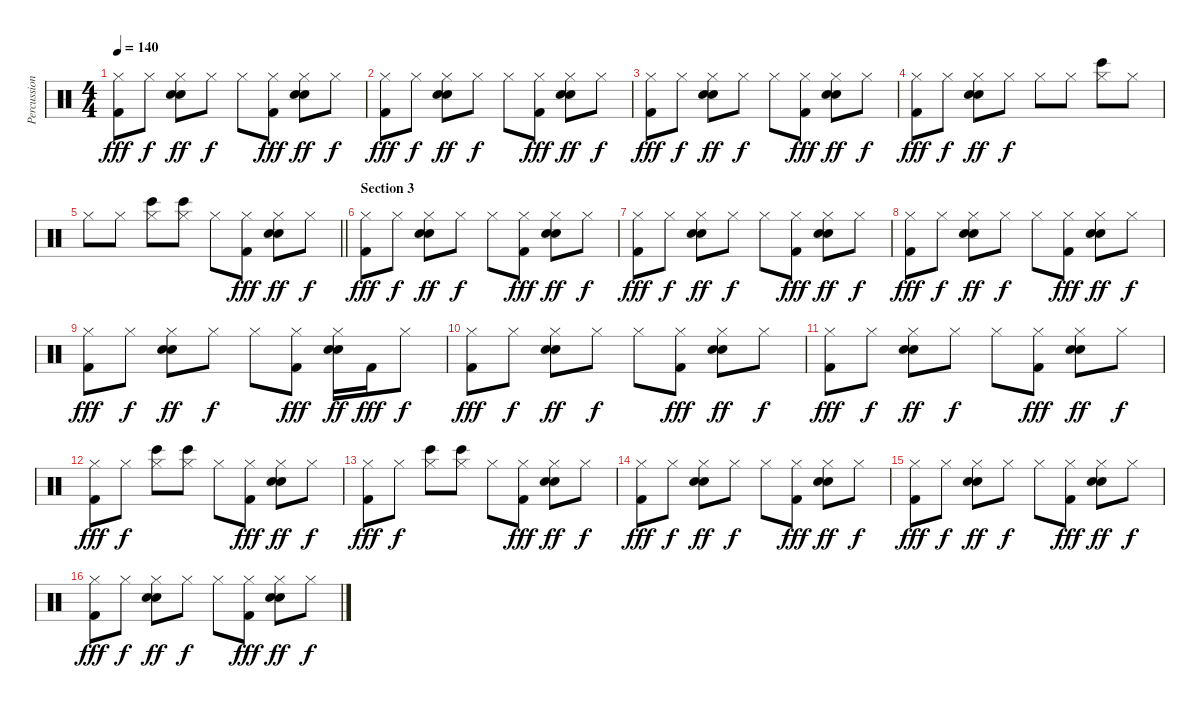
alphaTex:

\track ("Percussion" "Percussion") {instrument percussion}
\staff {score}
\articulation defaults
\ts (4 4)
\tempo 140
\clef neutral
\ks c
("Hi-Hat (closed)" "Kick (hit) 2").8{dy fff} "Hi-Hat (closed)".8{dy f} ("Hi-Hat (closed)" "Electric Snare (hit)" "Snare (hit) 2").8{dy ff} "Hi-Hat (closed)".8{dy f} "Hi-Hat (closed)".8 ("Hi-Hat (closed)" "Kick (hit) 2").8{dy fff} ("Hi-Hat (closed)" "Electric Snare (hit)" "Snare (hit) 2").8{dy ff} "Hi-Hat (closed)".8{dy f} |
("Hi-Hat (closed)" "Kick (hit) 2").8{dy fff} "Hi-Hat (closed)".8{dy f} ("Hi-Hat (closed)" "Electric Snare (hit)" "Snare (hit) 2").8{dy ff} "Hi-Hat (closed)".8{dy f} "Hi-Hat (closed)".8 ("Hi-Hat (closed)" "Kick (hit) 2").8{dy fff} ("Hi-Hat (closed)" "Electric Snare (hit)" "Snare (hit) 2").8{dy ff} "Hi-Hat (closed)".8{dy f} |
("Hi-Hat (closed)" "Kick (hit) 2").8{dy fff} "Hi-Hat (closed)".8{dy f} ("Hi-Hat (closed)" "Electric Snare (hit)" "Snare (hit) 2").8{dy ff} "Hi-Hat (closed)".8{dy f} "Hi-Hat (closed)".8 ("Hi-Hat (closed)" "Kick (hit) 2").8{dy fff} ("Hi-Hat (closed)" "Electric Snare (hit)" "Snare (hit) 2").8{dy ff} "Hi-Hat (closed)".8{dy f} |
("Hi-Hat (closed)" "Kick (hit) 2").8{dy fff} "Hi-Hat (closed)".8{dy f} ("Hi-Hat (closed)" "Electric Snare (hit)" "Snare (hit) 2").8{dy ff} "Hi-Hat (closed)".8{dy f} "Hi-Hat (closed)".8 "Hi-Hat (closed)".8 ("Hi-Hat (closed)" "Bongo High (hit)").8 "Hi-Hat (closed)".8 |
\barLineRight lightlight "Hi-Hat (closed)".8 "Hi-Hat (closed)".8
("Hi-Hat (closed)" "Bongo High (hit)").8 ("Hi-Hat (closed)" "Bongo High (hit)").8 "Hi-Hat (closed)".8 ("Hi-Hat (closed)" "Kick (hit) 2").8{dy fff} ("Hi-Hat (closed)" "Electric Snare (hit)" "Snare (hit) 2").8{dy ff} "Hi-Hat (closed)".8{dy f} |
\section ("" "Section 3")
("Hi-Hat (closed)" "Kick (hit) 2").8{dy fff} "Hi-Hat (closed)".8{dy f} ("Hi-Hat (closed)" "Electric Snare (hit)" "Snare (hit) 2").8{dy ff} "Hi-Hat (closed)".8{dy f} "Hi-Hat (closed)".8 ("Hi-Hat (closed)" "Kick (hit) 2").8{dy fff} ("Hi-Hat (closed)" "Electric Snare (hit)" "Snare (hit) 2").8{dy ff} "Hi-Hat (closed)".8{dy f} |
("Hi-Hat (closed)" "Kick (hit) 2").8{dy fff} "Hi-Hat (closed)".8{dy f} ("Hi-Hat (closed)" "Electric Snare (hit)" "Snare (hit) 2").8{dy ff} "Hi-Hat (closed)".8{dy f} "Hi-Hat (closed)".8 ("Hi-Hat (closed)" "Kick (hit) 2").8{dy fff} ("Hi-Hat (closed)" "Electric Snare (hit)" "Snare (hit) 2").8{dy ff} "Hi-Hat (closed)".8{dy f} |
("Hi-Hat (closed)" "Kick (hit) 2").8{dy fff} "Hi-Hat (closed)".8{dy f} ("Hi-Hat (closed)" "Electric Snare (hit)" "Snare (hit) 2").8{dy ff} "Hi-Hat (closed)".8{dy f} "Hi-Hat (closed)".8 ("Hi-Hat (closed)" "Kick (hit) 2").8{dy fff} ("Hi-Hat (closed)" "Electric Snare (hit)" "Snare (hit) 2").8{dy ff} "Hi-Hat (closed)".8{dy f} |
("Hi-Hat (closed)" "Kick (hit) 2").8{dy fff} "Hi-Hat (closed)".8{dy f} ("Hi-Hat (closed)" "Electric Snare (hit)" "Snare (hit) 2").8{dy ff} "Hi-Hat (closed)".8{dy f} "Hi-Hat (closed)".8 ("Hi-Hat (closed)" "Kick (hit) 2").8{dy fff} ("Hi-Hat (closed)" "Electric Snare (hit)" "Snare (hit) 2").16{dy ff} "Kick (hit) 2".16{dy fff} "Hi-Hat (closed)".8{dy f} |
("Hi-Hat (closed)" "Kick (hit) 2").8{dy fff} "Hi-Hat (closed)".8{dy f} ("Hi-Hat (closed)" "Electric Snare (hit)" "Snare (hit) 2").8{dy ff} "Hi-Hat (closed)".8{dy f} "Hi-Hat (closed)".8 ("Hi-Hat (closed)" "Kick (hit) 2").8{dy fff} ("Hi-Hat (closed)" "Electric Snare (hit)" "Snare (hit) 2").8{dy ff} "Hi-Hat (closed)".8{dy f} |
("Hi-Hat (closed)" "Kick (hit) 2").8{dy fff} "Hi-Hat (closed)".8{dy f} ("Hi-Hat (closed)" "Electric Snare (hit)" "Snare (hit) 2").8{dy ff} "Hi-Hat (closed)".8{dy f} "Hi-Hat (closed)".8 ("Hi-Hat (closed)" "Kick (hit) 2").8{dy fff} ("Hi-Hat (closed)" "Electric Snare (hit)" "Snare (hit) 2").8{dy ff} "Hi-Hat (closed)".8{dy f} |
("Hi-Hat (closed)" "Kick (hit) 2").8{dy fff} "Hi-Hat (closed)".8{dy f} ("Hi-Hat (closed)" "Bongo High (hit)").8 ("Hi-Hat (closed)" "Bongo High (hit)").8 "Hi-Hat (closed)".8 ("Hi-Hat (closed)" "Kick (hit) 2").8{dy fff} ("Hi-Hat (closed)" "Electric Snare (hit)" "Snare (hit) 2").8{dy ff} "Hi-Hat (closed)".8{dy f} |
("Hi-Hat (closed)" "Kick (hit) 2").8{dy fff} "Hi-Hat (closed)".8{dy f} ("Hi-Hat (closed)" "Bongo High (hit)").8 ("Hi-Hat (closed)" "Bongo High (hit)").8 "Hi-Hat (closed)".8 ("Hi-Hat (closed)" "Kick (hit) 2").8{dy fff} ("Hi-Hat (closed)" "Electric Snare (hit)" "Snare (hit) 2").8{dy ff} "Hi-Hat (closed)".8{dy f} |
("Hi-Hat (closed)" "Kick (hit) 2").8{dy fff} "Hi-Hat (closed)".8{dy f} ("Hi-Hat (closed)" "Electric Snare (hit)" "Snare (hit) 2").8{dy ff} "Hi-Hat (closed)".8{dy f} "Hi-Hat (closed)".8 ("Hi-Hat (closed)" "Kick (hit) 2").8{dy fff} ("Hi-Hat (closed)" "Electric Snare (hit)" "Snare (hit) 2").8{dy ff} "Hi-Hat (closed)".8{dy f} |
("Hi-Hat (closed)" "Kick (hit) 2").8{dy fff} "Hi-Hat (closed)".8{dy f} ("Hi-Hat (closed)" "Electric Snare (hit)" "Snare (hit) 2").8{dy ff} "Hi-Hat (closed)".8{dy f} "Hi-Hat (closed)".8 ("Hi-Hat (closed)" "Kick (hit) 2").8{dy fff} ("Hi-Hat (closed)" "Electric Snare (hit)" "Snare (hit) 2").8{dy ff} "Hi-Hat (closed)".8{dy f} |
("Hi-Hat (closed)" "Kick (hit) 2").8{dy fff} "Hi-Hat (closed)".8{dy f} ("Hi-Hat (closed)" "Electric Snare (hit)" "Snare (hit) 2").8{dy ff} "Hi-Hat (closed)".8{dy f} "Hi-Hat (closed)".8 ("Hi-Hat (closed)" "Kick (hit) 2").8{dy fff} ("Hi-Hat (closed)" "Electric Snare (hit)" "Snare (hit) 2").8{dy ff} "Hi-Hat (closed)".8{dy f}
